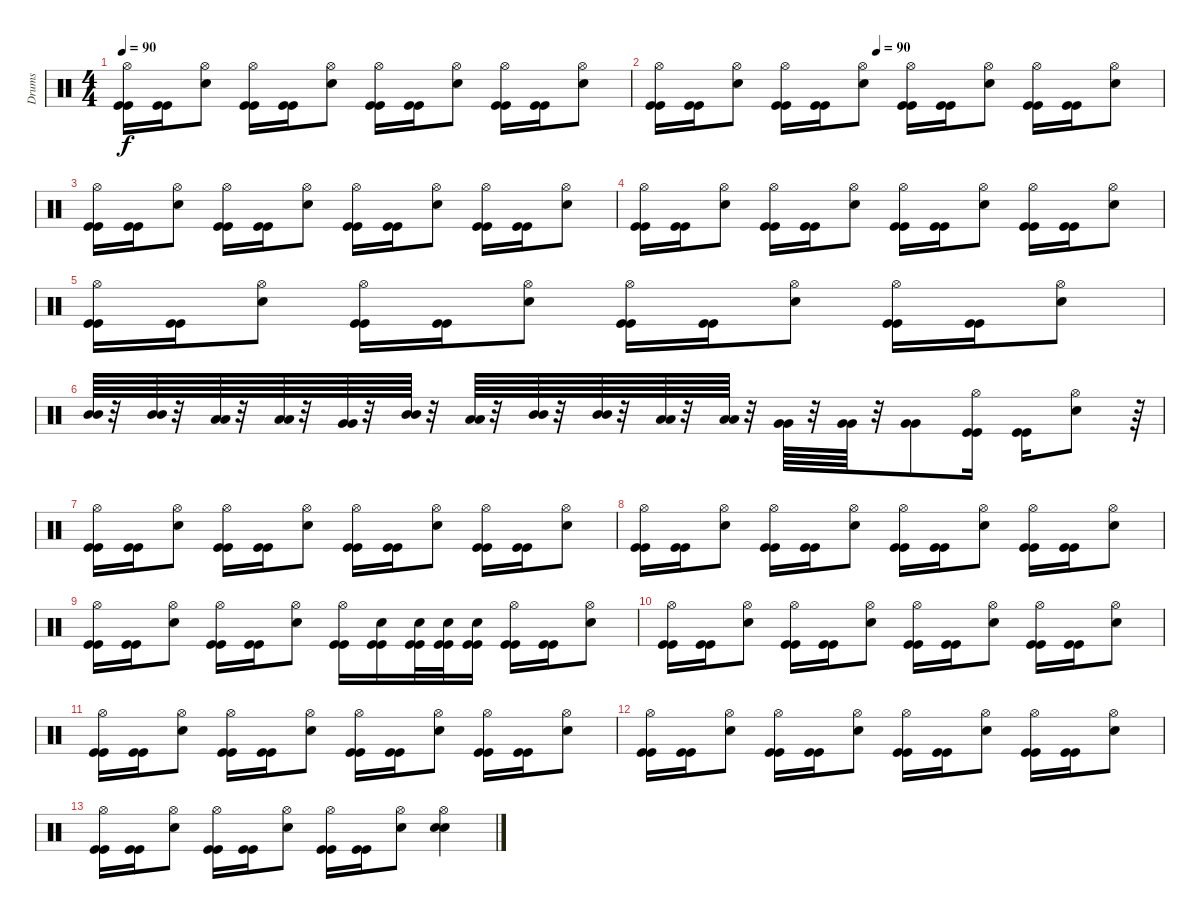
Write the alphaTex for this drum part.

\track ("Drums" "Drums") {instrument percussion}
\staff {score}
\articulation defaults
\ts (4 4)
\tempo 90
\clef neutral
\ks c
("Hi-Hat (open)" "Kick (hit)" "Kick (hit)").16{dy f} ("Kick (hit)" "Kick (hit)").16 ("Hi-Hat (open)" "Electric Snare (hit)").8 ("Hi-Hat (open)" "Kick (hit)" "Kick (hit)").16 ("Kick (hit)" "Kick (hit)").16 ("Hi-Hat (open)" "Electric Snare (hit)").8 ("Hi-Hat (open)" "Kick (hit)" "Kick (hit)").16 ("Kick (hit)" "Kick (hit)").16 ("Hi-Hat (open)" "Electric Snare (hit)").8 ("Hi-Hat (open)" "Kick (hit)" "Kick (hit)").16 ("Kick (hit)" "Kick (hit)").16 ("Hi-Hat (open)" "Electric Snare (hit)").8 |
\tempo (90 0.4375)
("Hi-Hat (open)" "Kick (hit)" "Kick (hit)").16 ("Kick (hit)" "Kick (hit)").16 ("Hi-Hat (open)" "Electric Snare (hit)").8 ("Hi-Hat (open)" "Kick (hit)" "Kick (hit)").16 ("Kick (hit)" "Kick (hit)").16 ("Hi-Hat (open)" "Electric Snare (hit)").8 ("Hi-Hat (open)" "Kick (hit)" "Kick (hit)").16 ("Kick (hit)" "Kick (hit)").16 ("Hi-Hat (open)" "Electric Snare (hit)").8 ("Hi-Hat (open)" "Kick (hit)" "Kick (hit)").16 ("Kick (hit)" "Kick (hit)").16 ("Hi-Hat (open)" "Electric Snare (hit)").8 |
("Hi-Hat (open)" "Kick (hit)" "Kick (hit)").16 ("Kick (hit)" "Kick (hit)").16 ("Hi-Hat (open)" "Electric Snare (hit)").8 ("Hi-Hat (open)" "Kick (hit)" "Kick (hit)").16 ("Kick (hit)" "Kick (hit)").16 ("Hi-Hat (open)" "Electric Snare (hit)").8 ("Hi-Hat (open)" "Kick (hit)" "Kick (hit)").16 ("Kick (hit)" "Kick (hit)").16 ("Hi-Hat (open)" "Electric Snare (hit)").8 ("Hi-Hat (open)" "Kick (hit)" "Kick (hit)").16 ("Kick (hit)" "Kick (hit)").16 ("Hi-Hat (open)" "Electric Snare (hit)").8 |
("Hi-Hat (open)" "Kick (hit)" "Kick (hit)").16 ("Kick (hit)" "Kick (hit)").16 ("Hi-Hat (open)" "Electric Snare (hit)").8 ("Hi-Hat (open)" "Kick (hit)" "Kick (hit)").16 ("Kick (hit)" "Kick (hit)").16 ("Hi-Hat (open)" "Electric Snare (hit)").8 ("Hi-Hat (open)" "Kick (hit)" "Kick (hit)").16 ("Kick (hit)" "Kick (hit)").16 ("Hi-Hat (open)" "Electric Snare (hit)").8 ("Hi-Hat (open)" "Kick (hit)" "Kick (hit)").16 ("Kick (hit)" "Kick (hit)").16 ("Hi-Hat (open)" "Electric Snare (hit)").8 |
("Hi-Hat (open)" "Kick (hit)" "Kick (hit)").16 ("Kick (hit)" "Kick (hit)").16 ("Hi-Hat (open)" "Electric Snare (hit)").8 ("Hi-Hat (open)" "Kick (hit)" "Kick (hit)").16 ("Kick (hit)" "Kick (hit)").16 ("Hi-Hat (open)" "Electric Snare (hit)").8 ("Hi-Hat (open)" "Kick (hit)" "Kick (hit)").16 ("Kick (hit)" "Kick (hit)").16 ("Hi-Hat (open)" "Electric Snare (hit)").8 ("Hi-Hat (open)" "Kick (hit)" "Kick (hit)").16 ("Kick (hit)" "Kick (hit)").16 ("Hi-Hat (open)" "Electric Snare (hit)").8 |
("Mid Tom (hit)" "Mid Tom (hit)").64 r.32 ("Mid Tom (hit)" "Mid Tom (hit)").64 r.32 ("Low Tom (hit)" "Low Tom (hit)").64 r.32 ("Low Tom (hit)" "Low Tom (hit)").64 r.32 ("Very Low Tom (hit)" "Very Low Tom (hit)").64 r.32 ("Mid Tom (hit)" "Mid Tom (hit)").64 r.32 ("Low Tom (hit)" "Low Tom (hit)").64 r.32 ("Mid Tom (hit)" "Mid Tom (hit)").64 r.32 ("Mid Tom (hit)" "Mid Tom (hit)").64 r.32 ("Low Tom (hit)" "Low Tom (hit)").64 r.32 ("Low Tom (hit)" "Low Tom (hit)").64 r.32 ("Very Low Tom (hit)" "Very Low Tom (hit)").64 r.32 ("Very Low Tom (hit)" "Very Low Tom (hit)").64 r.32 ("Very Low Tom (hit)" "Very Low Tom (hit)").8 ("Hi-Hat (open)" "Kick (hit)" "Kick (hit)").16 ("Kick (hit)" "Kick (hit)").16 ("Hi-Hat (open)" "Electric Snare (hit)").8 r.64 |
("Hi-Hat (open)" "Kick (hit)" "Kick (hit)").16 ("Kick (hit)" "Kick (hit)").16 ("Hi-Hat (open)" "Electric Snare (hit)").8 ("Hi-Hat (open)" "Kick (hit)" "Kick (hit)").16 ("Kick (hit)" "Kick (hit)").16 ("Hi-Hat (open)" "Electric Snare (hit)").8 ("Hi-Hat (open)" "Kick (hit)" "Kick (hit)").16 ("Kick (hit)" "Kick (hit)").16 ("Hi-Hat (open)" "Electric Snare (hit)").8 ("Hi-Hat (open)" "Kick (hit)" "Kick (hit)").16 ("Kick (hit)" "Kick (hit)").16 ("Hi-Hat (open)" "Electric Snare (hit)").8 |
("Hi-Hat (open)" "Kick (hit)" "Kick (hit)").16 ("Kick (hit)" "Kick (hit)").16 ("Hi-Hat (open)" "Electric Snare (hit)").8 ("Hi-Hat (open)" "Kick (hit)" "Kick (hit)").16 ("Kick (hit)" "Kick (hit)").16 ("Hi-Hat (open)" "Electric Snare (hit)").8 ("Hi-Hat (open)" "Kick (hit)" "Kick (hit)").16 ("Kick (hit)" "Kick (hit)").16 ("Hi-Hat (open)" "Electric Snare (hit)").8 ("Hi-Hat (open)" "Kick (hit)" "Kick (hit)").16 ("Kick (hit)" "Kick (hit)").16 ("Hi-Hat (open)" "Electric Snare (hit)").8 |
("Hi-Hat (open)" "Kick (hit)" "Kick (hit)").16 ("Kick (hit)" "Kick (hit)").16 ("Hi-Hat (open)" "Electric Snare (hit)").8 ("Hi-Hat (open)" "Kick (hit)" "Kick (hit)").16 ("Kick (hit)" "Kick (hit)").16 ("Hi-Hat (open)" "Electric Snare (hit)").8 ("Hi-Hat (open)" "Kick (hit)" "Kick (hit)").16 ("Kick (hit)" "Kick (hit)" "Electric Snare (hit)").16 ("Kick (hit)" "Kick (hit)" "Electric Snare (hit)").32 ("Kick (hit)" "Kick (hit)" "Electric Snare (hit)").32 ("Kick (hit)" "Kick (hit)" "Electric Snare (hit)").16 ("Hi-Hat (open)" "Kick (hit)" "Kick (hit)").16 ("Kick (hit)" "Kick (hit)").16 ("Hi-Hat (open)" "Electric Snare (hit)").8 |
("Hi-Hat (open)" "Kick (hit)" "Kick (hit)").16 ("Kick (hit)" "Kick (hit)").16 ("Hi-Hat (open)" "Electric Snare (hit)").8 ("Hi-Hat (open)" "Kick (hit)" "Kick (hit)").16 ("Kick (hit)" "Kick (hit)").16 ("Hi-Hat (open)" "Electric Snare (hit)").8 ("Hi-Hat (open)" "Kick (hit)" "Kick (hit)").16 ("Kick (hit)" "Kick (hit)").16 ("Hi-Hat (open)" "Electric Snare (hit)").8 ("Hi-Hat (open)" "Kick (hit)" "Kick (hit)").16 ("Kick (hit)" "Kick (hit)").16 ("Hi-Hat (open)" "Electric Snare (hit)").8 |
("Hi-Hat (open)" "Kick (hit)" "Kick (hit)").16 ("Kick (hit)" "Kick (hit)").16 ("Hi-Hat (open)" "Electric Snare (hit)").8 ("Hi-Hat (open)" "Kick (hit)" "Kick (hit)").16 ("Kick (hit)" "Kick (hit)").16 ("Hi-Hat (open)" "Electric Snare (hit)").8 ("Hi-Hat (open)" "Kick (hit)" "Kick (hit)").16 ("Kick (hit)" "Kick (hit)").16 ("Hi-Hat (open)" "Electric Snare (hit)").8 ("Hi-Hat (open)" "Kick (hit)" "Kick (hit)").16 ("Kick (hit)" "Kick (hit)").16 ("Hi-Hat (open)" "Electric Snare (hit)").8 |
("Hi-Hat (open)" "Kick (hit)" "Kick (hit)").16 ("Kick (hit)" "Kick (hit)").16 ("Hi-Hat (open)" "Electric Snare (hit)").8 ("Hi-Hat (open)" "Kick (hit)" "Kick (hit)").16 ("Kick (hit)" "Kick (hit)").16 ("Hi-Hat (open)" "Electric Snare (hit)").8 ("Hi-Hat (open)" "Kick (hit)" "Kick (hit)").16 ("Kick (hit)" "Kick (hit)").16 ("Hi-Hat (open)" "Electric Snare (hit)").8 ("Hi-Hat (open)" "Kick (hit)" "Kick (hit)").16 ("Kick (hit)" "Kick (hit)").16 ("Hi-Hat (open)" "Electric Snare (hit)").8 |
("Hi-Hat (open)" "Kick (hit)" "Kick (hit)").16 ("Kick (hit)" "Kick (hit)").16 ("Hi-Hat (open)" "Electric Snare (hit)").8 ("Hi-Hat (open)" "Kick (hit)" "Kick (hit)").16 ("Kick (hit)" "Kick (hit)").16 ("Hi-Hat (open)" "Electric Snare (hit)").8 ("Hi-Hat (open)" "Kick (hit)" "Kick (hit)").16 ("Kick (hit)" "Kick (hit)").16 ("Hi-Hat (open)" "Electric Snare (hit)").8 ("Hi-Hat (open)" "Electric Snare (hit)" "Electric Snare (hit)").4
